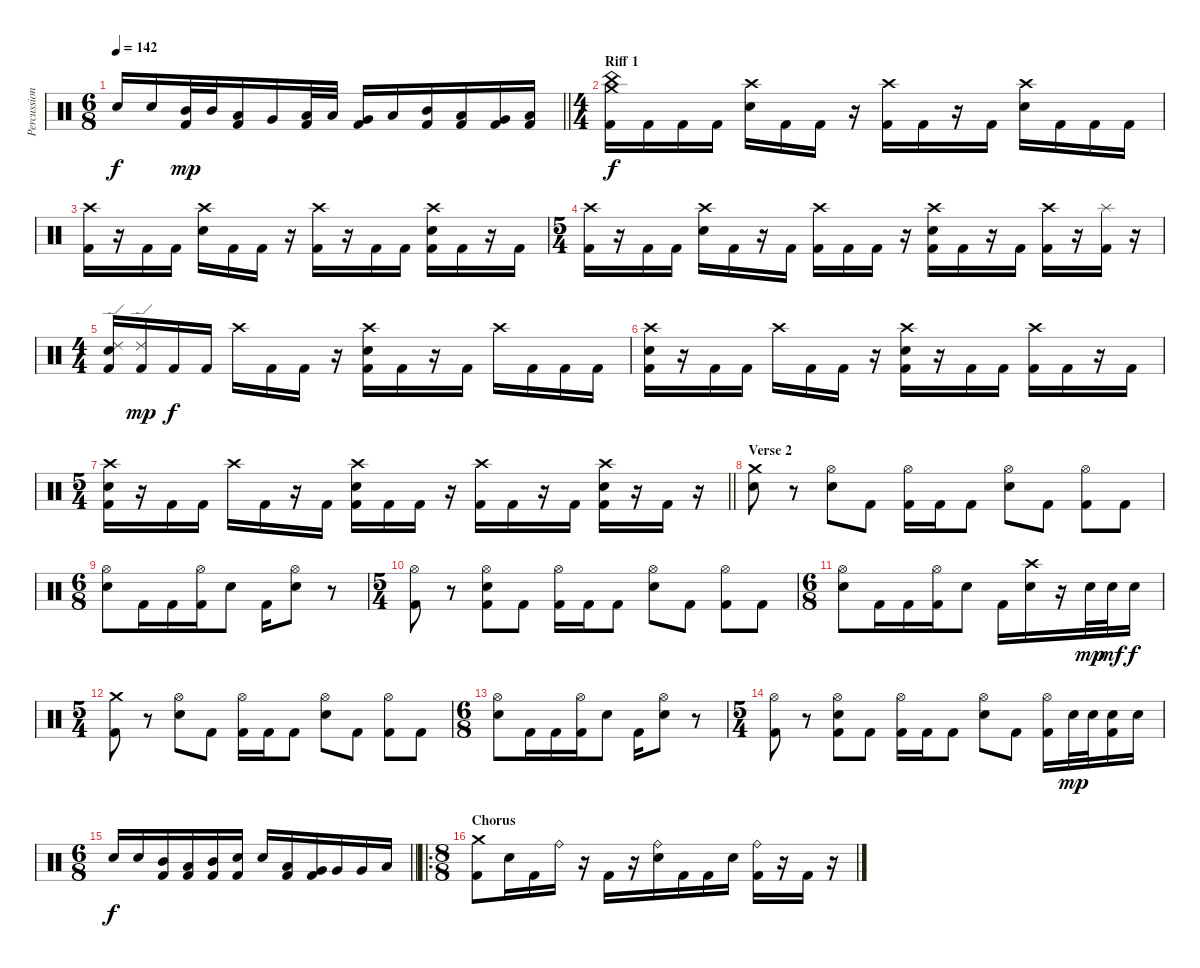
\track ("Percussions" "Percussion") {instrument percussion}
\staff {score}
\articulation defaults
\ts (6 8)
\tempo 142
\clef neutral
\barLineRight lightlight
\ks c "Electric Snare (hit)".16{dy f} "Electric Snare (hit)".16
("Mid Tom (hit)" "Kick (hit) 2").32{dy mp} "Mid Tom (hit)".32 ("Low Tom (hit)" "Kick (hit) 2").16 "Very Low Tom (hit)".16 ("Low Tom (hit)" "Kick (hit) 2").32 "Low Tom (hit)".32 ("Very Low Tom (hit)" "Kick (hit) 2").16 "Low Floor Tom (hit)".16 ("Mid Tom (hit)" "Kick (hit) 2").16 ("Low Tom (hit)" "Kick (hit) 2").16 ("Very Low Tom (hit)" "Kick (hit) 2").16 ("Low Floor Tom (hit)" "Kick (hit) 2").16 |
\ts (4 4)
\section ("" "Riff 1")
("Crash medium (hit)" "China (hit)" "Kick (hit) 2").16{dy f} "Kick (hit) 2".16 "Kick (hit) 2".16 "Kick (hit) 2".16 ("Crash high (hit)" "Electric Snare (hit)").16 "Kick (hit) 2".16 "Kick (hit) 2".16 r.16 ("Crash high (hit)" "Kick (hit) 2").16 "Kick (hit) 2".16 r.16 "Kick (hit) 2".16 ("Crash high (hit)" "Electric Snare (hit)").16 "Kick (hit) 2".16 "Kick (hit) 2".16 "Kick (hit) 2".16 |
("Crash high (hit)" "Kick (hit) 2").16 r.16 "Kick (hit) 2".16 "Kick (hit) 2".16 ("Crash high (hit)" "Electric Snare (hit)").16 "Kick (hit) 2".16 "Kick (hit) 2".16 r.16 ("Crash high (hit)" "Kick (hit) 2").16 r.16 "Kick (hit) 2".16 "Kick (hit) 2".16 ("Crash high (hit)" "Electric Snare (hit)" "Kick (hit) 2").16 "Kick (hit) 2".16 r.16 "Kick (hit) 2".16 |
\ts (5 4)
("Crash high (hit)" "Kick (hit) 2").16 r.16 "Kick (hit) 2".16 "Kick (hit) 2".16 ("Crash high (hit)" "Electric Snare (hit)").16 "Kick (hit) 2".16 r.16 "Kick (hit) 2".16 ("Crash high (hit)" "Kick (hit) 2").16 "Kick (hit) 2".16 "Kick (hit) 2".16 r.16 ("Crash high (hit)" "Electric Snare (hit)" "Kick (hit) 2").16 "Kick (hit) 2".16 r.16 "Kick (hit) 2".16 ("Crash high (hit)" "Kick (hit) 2").16 r.16 ("Splash (hit)" "Kick (hit) 2").16 r.16 |
\ts (4 4)
("Ride (edge) 2" "Electric Snare (hit)" "Kick (hit) 2").16 ("Ride (edge) 2" "Kick (hit) 2").16{dy mp} "Kick (hit) 2".16{dy f} "Kick (hit) 2".16 "Crash high (hit)".16 "Kick (hit) 2".16 "Kick (hit) 2".16 r.16 ("Crash high (hit)" "Electric Snare (hit)" "Kick (hit) 2").16 "Kick (hit) 2".16 r.16 "Kick (hit) 2".16 "Crash high (hit)".16 "Kick (hit) 2".16 "Kick (hit) 2".16 "Kick (hit) 2".16 |
("Crash high (hit)" "Electric Snare (hit)" "Kick (hit) 2").16 r.16 "Kick (hit) 2".16 "Kick (hit) 2".16 "Crash high (hit)".16 "Kick (hit) 2".16 "Kick (hit) 2".16 r.16 ("Crash high (hit)" "Electric Snare (hit)" "Kick (hit) 2").16 r.16 "Kick (hit) 2".16 "Kick (hit) 2".16 ("Crash high (hit)" "Kick (hit) 2").16 "Kick (hit) 2".16 r.16 "Kick (hit) 2".16 |
\ts (5 4)
\barLineRight lightlight
("Crash high (hit)" "Electric Snare (hit)" "Kick (hit) 2").16 r.16 "Kick (hit) 2".16 "Kick (hit) 2".16 "Crash high (hit)".16 "Kick (hit) 2".16 r.16 "Kick (hit) 2".16 ("Crash high (hit)" "Electric Snare (hit)" "Kick (hit) 2").16 "Kick (hit) 2".16 "Kick (hit) 2".16 r.16 ("Crash high (hit)" "Kick (hit) 2").16 "Kick (hit) 2".16 r.16 "Kick (hit) 2".16 ("Crash high (hit)" "Electric Snare (hit)" "Kick (hit) 2").16 r.16 "Kick (hit) 2".16 r.16 |
\section ("" "Verse 2")
("Crash medium (hit)" "Electric Snare (hit)").8 r.8 ("Hi-Hat (open)" "Electric Snare (hit)").8 "Kick (hit) 2".8 ("Hi-Hat (open)" "Kick (hit) 2").16 "Kick (hit) 2".16 "Kick (hit) 2".8 ("Hi-Hat (open)" "Electric Snare (hit)").8 "Kick (hit) 2".8 ("Hi-Hat (open)" "Kick (hit) 2").8 "Kick (hit) 2".8 |
\ts (6 8)
("Hi-Hat (open)" "Electric Snare (hit)").8 "Kick (hit) 2".16 "Kick (hit) 2".16 ("Hi-Hat (open)" "Kick (hit) 2").16 "Electric Snare (hit)".8 "Kick (hit) 2".16 ("Hi-Hat (open)" "Electric Snare (hit)").8 r.8 |
\ts (5 4)
("Hi-Hat (open)" "Kick (hit) 2").8 r.8 ("Hi-Hat (open)" "Electric Snare (hit)" "Kick (hit) 2").8 "Kick (hit) 2".8 ("Hi-Hat (open)" "Kick (hit) 2").16 "Kick (hit) 2".16 "Kick (hit) 2".8 ("Hi-Hat (open)" "Electric Snare (hit)").8 "Kick (hit) 2".8 ("Hi-Hat (open)" "Kick (hit) 2").8 "Kick (hit) 2".8 |
\ts (6 8)
("Hi-Hat (open)" "Electric Snare (hit)").8 "Kick (hit) 2".16 "Kick (hit) 2".16 ("Hi-Hat (open)" "Kick (hit) 2").16 "Electric Snare (hit)".8 "Kick (hit) 2".16 ("Crash high (hit)" "Electric Snare (hit)").16 r.16 "Electric Snare (hit)".32{dy mp} "Electric Snare (hit)".32{dy mf} "Electric Snare (hit)".16{dy f} |
\ts (5 4)
("Crash medium (hit)" "Kick (hit) 2").8 r.8 ("Hi-Hat (open)" "Electric Snare (hit)").8 "Kick (hit) 2".8 ("Hi-Hat (open)" "Kick (hit) 2").16 "Kick (hit) 2".16 "Kick (hit) 2".8 ("Hi-Hat (open)" "Electric Snare (hit)").8 "Kick (hit) 2".8 ("Hi-Hat (open)" "Kick (hit) 2").8 "Kick (hit) 2".8 |
\ts (6 8)
("Hi-Hat (open)" "Electric Snare (hit)").8 "Kick (hit) 2".16 "Kick (hit) 2".16 ("Hi-Hat (open)" "Kick (hit) 2").16 "Electric Snare (hit)".8 "Kick (hit) 2".16 ("Hi-Hat (open)" "Electric Snare (hit)").8 r.8 |
\ts (5 4)
("Hi-Hat (open)" "Kick (hit) 2").8 r.8 ("Hi-Hat (open)" "Electric Snare (hit)" "Kick (hit) 2").8 "Kick (hit) 2".8 ("Hi-Hat (open)" "Kick (hit) 2").16 "Kick (hit) 2".16 "Kick (hit) 2".8 ("Hi-Hat (open)" "Electric Snare (hit)").8 "Kick (hit) 2".8 ("Hi-Hat (open)" "Kick (hit) 2").16 "Electric Snare (hit)".32{dy mp} "Electric Snare (hit)".32 ("Electric Snare (hit)" "Kick (hit) 2").16 "Electric Snare (hit)".16 |
\ts (6 8)
\barLineRight lightlight "Electric Snare (hit)".16{dy f} "Electric Snare (hit)".16
("Mid Tom (hit)" "Kick (hit) 2").16 ("Low Tom (hit)" "Kick (hit) 2").16 ("Mid Tom (hit)" "Kick (hit) 2").16 ("Electric Snare (hit)" "Kick (hit) 2").16 "Electric Snare (hit)".16 ("Low Tom (hit)" "Kick (hit) 2").16 ("Very Low Tom (hit)" "Kick (hit) 2").16 "Very Low Tom (hit)".16 "Very Low Tom (hit)".16 "Low Floor Tom (hit)".16 |
\ro
\ts (8 8)
\section ("" "Chorus")
("Crash medium (hit)" "Kick (hit) 2").8 "Electric Snare (hit)".16 "Kick (hit) 2".16 "Ride (bell)".16 r.16 "Kick (hit) 2".16 r.16 ("Ride (bell)" "Electric Snare (hit)").16 "Kick (hit) 2".16 "Kick (hit) 2".16 "Electric Snare (hit)".16 ("Ride (bell)" "Kick (hit) 2").16 r.16 "Kick (hit) 2".16 r.16
